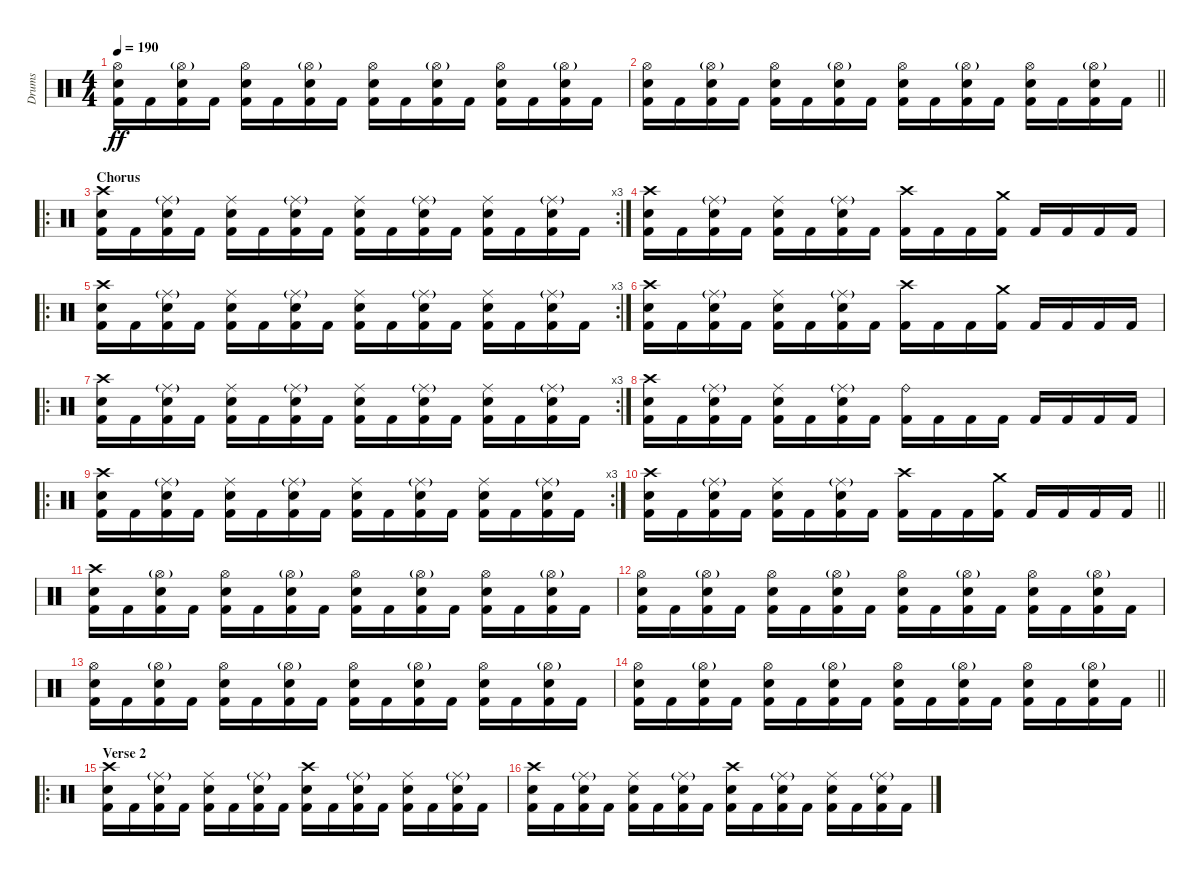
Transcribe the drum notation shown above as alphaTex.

\track ("Drums" "Drums") {instrument percussion}
\staff {score}
\articulation defaults
\ts (4 4)
\tempo 190
\clef neutral
\ks c
("Hi-Hat (open)" "Electric Snare (hit)" "Kick (hit) 2").16{dy ff} "Kick (hit) 2".16 ("Hi-Hat (open)"{g} "Electric Snare (hit)" "Kick (hit) 2").16 "Kick (hit) 2".16 ("Hi-Hat (open)" "Electric Snare (hit)" "Kick (hit) 2").16 "Kick (hit) 2".16 ("Hi-Hat (open)"{g} "Electric Snare (hit)" "Kick (hit) 2").16 "Kick (hit) 2".16 ("Hi-Hat (open)" "Electric Snare (hit)" "Kick (hit) 2").16 "Kick (hit) 2".16 ("Hi-Hat (open)"{g} "Electric Snare (hit)" "Kick (hit) 2").16 "Kick (hit) 2".16 ("Hi-Hat (open)" "Electric Snare (hit)" "Kick (hit) 2").16 "Kick (hit) 2".16 ("Hi-Hat (open)"{g} "Electric Snare (hit)" "Kick (hit) 2").16 "Kick (hit) 2".16 |
\barLineRight lightlight
("Hi-Hat (open)" "Electric Snare (hit)" "Kick (hit) 2").16 "Kick (hit) 2".16 ("Hi-Hat (open)"{g} "Electric Snare (hit)" "Kick (hit) 2").16 "Kick (hit) 2".16 ("Hi-Hat (open)" "Electric Snare (hit)" "Kick (hit) 2").16 "Kick (hit) 2".16 ("Hi-Hat (open)"{g} "Electric Snare (hit)" "Kick (hit) 2").16 "Kick (hit) 2".16 ("Hi-Hat (open)" "Electric Snare (hit)" "Kick (hit) 2").16 "Kick (hit) 2".16 ("Hi-Hat (open)"{g} "Electric Snare (hit)" "Kick (hit) 2").16 "Kick (hit) 2".16 ("Hi-Hat (open)" "Electric Snare (hit)" "Kick (hit) 2").16 "Kick (hit) 2".16 ("Hi-Hat (open)"{g} "Electric Snare (hit)" "Kick (hit) 2").16 "Kick (hit) 2".16 |
\ro
\rc 3
\section ("" "Chorus")
("Crash high (hit)" "Electric Snare (hit)" "Kick (hit) 2").16 "Kick (hit) 2".16 ("Ride (middle)"{g} "Electric Snare (hit)" "Kick (hit) 2").16 "Kick (hit) 2".16 ("Ride (middle)" "Electric Snare (hit)" "Kick (hit) 2").16 "Kick (hit) 2".16 ("Ride (middle)"{g} "Electric Snare (hit)" "Kick (hit) 2").16 "Kick (hit) 2".16 ("Ride (middle)" "Electric Snare (hit)" "Kick (hit) 2").16 "Kick (hit) 2".16 ("Ride (middle)"{g} "Electric Snare (hit)" "Kick (hit) 2").16 "Kick (hit) 2".16 ("Ride (middle)" "Electric Snare (hit)" "Kick (hit) 2").16 "Kick (hit) 2".16 ("Ride (middle)"{g} "Electric Snare (hit)" "Kick (hit) 2").16 "Kick (hit) 2".16 |
("Crash high (hit)" "Electric Snare (hit)" "Kick (hit) 2").16 "Kick (hit) 2".16 ("Ride (middle)"{g} "Electric Snare (hit)" "Kick (hit) 2").16 "Kick (hit) 2".16 ("Ride (middle)" "Electric Snare (hit)" "Kick (hit) 2").16 "Kick (hit) 2".16 ("Ride (middle)"{g} "Electric Snare (hit)" "Kick (hit) 2").16 "Kick (hit) 2".16 ("Crash high (hit)" "Kick (hit) 2").16 "Kick (hit) 2".16 "Kick (hit) 2".16 ("Crash medium (hit)" "Kick (hit) 2").16 "Kick (hit) 2".16 "Kick (hit) 2".16 "Kick (hit) 2".16 "Kick (hit) 2".16 |
\ro
\rc 3
("Crash high (hit)" "Electric Snare (hit)" "Kick (hit) 2").16 "Kick (hit) 2".16 ("Ride (middle)"{g} "Electric Snare (hit)" "Kick (hit) 2").16 "Kick (hit) 2".16 ("Ride (middle)" "Electric Snare (hit)" "Kick (hit) 2").16 "Kick (hit) 2".16 ("Ride (middle)"{g} "Electric Snare (hit)" "Kick (hit) 2").16 "Kick (hit) 2".16 ("Ride (middle)" "Electric Snare (hit)" "Kick (hit) 2").16 "Kick (hit) 2".16 ("Ride (middle)"{g} "Electric Snare (hit)" "Kick (hit) 2").16 "Kick (hit) 2".16 ("Ride (middle)" "Electric Snare (hit)" "Kick (hit) 2").16 "Kick (hit) 2".16 ("Ride (middle)"{g} "Electric Snare (hit)" "Kick (hit) 2").16 "Kick (hit) 2".16 |
("Crash high (hit)" "Electric Snare (hit)" "Kick (hit) 2").16 "Kick (hit) 2".16 ("Ride (middle)"{g} "Electric Snare (hit)" "Kick (hit) 2").16 "Kick (hit) 2".16 ("Ride (middle)" "Electric Snare (hit)" "Kick (hit) 2").16 "Kick (hit) 2".16 ("Ride (middle)"{g} "Electric Snare (hit)" "Kick (hit) 2").16 "Kick (hit) 2".16 ("Crash high (hit)" "Kick (hit) 2").16 "Kick (hit) 2".16 "Kick (hit) 2".16 ("Crash medium (hit)" "Kick (hit) 2").16 "Kick (hit) 2".16 "Kick (hit) 2".16 "Kick (hit) 2".16 "Kick (hit) 2".16 |
\ro
\rc 3
("Crash high (hit)" "Electric Snare (hit)" "Kick (hit) 2").16 "Kick (hit) 2".16 ("Ride (middle)"{g} "Electric Snare (hit)" "Kick (hit) 2").16 "Kick (hit) 2".16 ("Ride (middle)" "Electric Snare (hit)" "Kick (hit) 2").16 "Kick (hit) 2".16 ("Ride (middle)"{g} "Electric Snare (hit)" "Kick (hit) 2").16 "Kick (hit) 2".16 ("Ride (middle)" "Electric Snare (hit)" "Kick (hit) 2").16 "Kick (hit) 2".16 ("Ride (middle)"{g} "Electric Snare (hit)" "Kick (hit) 2").16 "Kick (hit) 2".16 ("Ride (middle)" "Electric Snare (hit)" "Kick (hit) 2").16 "Kick (hit) 2".16 ("Ride (middle)"{g} "Electric Snare (hit)" "Kick (hit) 2").16 "Kick (hit) 2".16 |
("Crash high (hit)" "Electric Snare (hit)" "Kick (hit) 2").16 "Kick (hit) 2".16 ("Ride (middle)"{g} "Electric Snare (hit)" "Kick (hit) 2").16 "Kick (hit) 2".16 ("Ride (middle)" "Electric Snare (hit)" "Kick (hit) 2").16 "Kick (hit) 2".16 ("Ride (middle)"{g} "Electric Snare (hit)" "Kick (hit) 2").16 "Kick (hit) 2".16 ("Ride (bell)" "Kick (hit) 2").16 "Kick (hit) 2".16 "Kick (hit) 2".16 "Kick (hit) 2".16 "Kick (hit) 2".16 "Kick (hit) 2".16 "Kick (hit) 2".16 "Kick (hit) 2".16 |
\ro
\rc 3
("Crash high (hit)" "Electric Snare (hit)" "Kick (hit) 2").16 "Kick (hit) 2".16 ("Ride (middle)"{g} "Electric Snare (hit)" "Kick (hit) 2").16 "Kick (hit) 2".16 ("Ride (middle)" "Electric Snare (hit)" "Kick (hit) 2").16 "Kick (hit) 2".16 ("Ride (middle)"{g} "Electric Snare (hit)" "Kick (hit) 2").16 "Kick (hit) 2".16 ("Ride (middle)" "Electric Snare (hit)" "Kick (hit) 2").16 "Kick (hit) 2".16 ("Ride (middle)"{g} "Electric Snare (hit)" "Kick (hit) 2").16 "Kick (hit) 2".16 ("Ride (middle)" "Electric Snare (hit)" "Kick (hit) 2").16 "Kick (hit) 2".16 ("Ride (middle)"{g} "Electric Snare (hit)" "Kick (hit) 2").16 "Kick (hit) 2".16 |
\barLineRight lightlight
("Crash high (hit)" "Electric Snare (hit)" "Kick (hit) 2").16 "Kick (hit) 2".16 ("Ride (middle)"{g} "Electric Snare (hit)" "Kick (hit) 2").16 "Kick (hit) 2".16 ("Ride (middle)" "Electric Snare (hit)" "Kick (hit) 2").16 "Kick (hit) 2".16 ("Ride (middle)"{g} "Electric Snare (hit)" "Kick (hit) 2").16 "Kick (hit) 2".16 ("Crash high (hit)" "Kick (hit) 2").16 "Kick (hit) 2".16 "Kick (hit) 2".16 ("Crash medium (hit)" "Kick (hit) 2").16 "Kick (hit) 2".16 "Kick (hit) 2".16 "Kick (hit) 2".16 "Kick (hit) 2".16 |
\section ("" "")
("Crash high (hit)" "Electric Snare (hit)" "Kick (hit) 2").16 "Kick (hit) 2".16 ("Hi-Hat (open)"{g} "Electric Snare (hit)" "Kick (hit) 2").16 "Kick (hit) 2".16 ("Hi-Hat (open)" "Electric Snare (hit)" "Kick (hit) 2").16 "Kick (hit) 2".16 ("Hi-Hat (open)"{g} "Electric Snare (hit)" "Kick (hit) 2").16 "Kick (hit) 2".16 ("Hi-Hat (open)" "Electric Snare (hit)" "Kick (hit) 2").16 "Kick (hit) 2".16 ("Hi-Hat (open)"{g} "Electric Snare (hit)" "Kick (hit) 2").16 "Kick (hit) 2".16 ("Hi-Hat (open)" "Electric Snare (hit)" "Kick (hit) 2").16 "Kick (hit) 2".16 ("Hi-Hat (open)"{g} "Electric Snare (hit)" "Kick (hit) 2").16 "Kick (hit) 2".16 |
("Hi-Hat (open)" "Electric Snare (hit)" "Kick (hit) 2").16 "Kick (hit) 2".16 ("Hi-Hat (open)"{g} "Electric Snare (hit)" "Kick (hit) 2").16 "Kick (hit) 2".16 ("Hi-Hat (open)" "Electric Snare (hit)" "Kick (hit) 2").16 "Kick (hit) 2".16 ("Hi-Hat (open)"{g} "Electric Snare (hit)" "Kick (hit) 2").16 "Kick (hit) 2".16 ("Hi-Hat (open)" "Electric Snare (hit)" "Kick (hit) 2").16 "Kick (hit) 2".16 ("Hi-Hat (open)"{g} "Electric Snare (hit)" "Kick (hit) 2").16 "Kick (hit) 2".16 ("Hi-Hat (open)" "Electric Snare (hit)" "Kick (hit) 2").16 "Kick (hit) 2".16 ("Hi-Hat (open)"{g} "Electric Snare (hit)" "Kick (hit) 2").16 "Kick (hit) 2".16 |
("Hi-Hat (open)" "Electric Snare (hit)" "Kick (hit) 2").16 "Kick (hit) 2".16 ("Hi-Hat (open)"{g} "Electric Snare (hit)" "Kick (hit) 2").16 "Kick (hit) 2".16 ("Hi-Hat (open)" "Electric Snare (hit)" "Kick (hit) 2").16 "Kick (hit) 2".16 ("Hi-Hat (open)"{g} "Electric Snare (hit)" "Kick (hit) 2").16 "Kick (hit) 2".16 ("Hi-Hat (open)" "Electric Snare (hit)" "Kick (hit) 2").16 "Kick (hit) 2".16 ("Hi-Hat (open)"{g} "Electric Snare (hit)" "Kick (hit) 2").16 "Kick (hit) 2".16 ("Hi-Hat (open)" "Electric Snare (hit)" "Kick (hit) 2").16 "Kick (hit) 2".16 ("Hi-Hat (open)"{g} "Electric Snare (hit)" "Kick (hit) 2").16 "Kick (hit) 2".16 |
\barLineRight lightlight
("Hi-Hat (open)" "Electric Snare (hit)" "Kick (hit) 2").16 "Kick (hit) 2".16 ("Hi-Hat (open)"{g} "Electric Snare (hit)" "Kick (hit) 2").16 "Kick (hit) 2".16 ("Hi-Hat (open)" "Electric Snare (hit)" "Kick (hit) 2").16 "Kick (hit) 2".16 ("Hi-Hat (open)"{g} "Electric Snare (hit)" "Kick (hit) 2").16 "Kick (hit) 2".16 ("Hi-Hat (open)" "Electric Snare (hit)" "Kick (hit) 2").16 "Kick (hit) 2".16 ("Hi-Hat (open)"{g} "Electric Snare (hit)" "Kick (hit) 2").16 "Kick (hit) 2".16 ("Hi-Hat (open)" "Electric Snare (hit)" "Kick (hit) 2").16 "Kick (hit) 2".16 ("Hi-Hat (open)"{g} "Electric Snare (hit)" "Kick (hit) 2").16 "Kick (hit) 2".16 |
\ro
\section ("" "Verse 2")
("Crash high (hit)" "Electric Snare (hit)" "Kick (hit) 2").16 "Kick (hit) 2".16 ("Ride (middle)"{g} "Electric Snare (hit)" "Kick (hit) 2").16 "Kick (hit) 2".16 ("Ride (middle)" "Electric Snare (hit)" "Kick (hit) 2").16 "Kick (hit) 2".16 ("Ride (middle)"{g} "Electric Snare (hit)" "Kick (hit) 2").16 "Kick (hit) 2".16 ("Crash high (hit)" "Electric Snare (hit)" "Kick (hit) 2").16 "Kick (hit) 2".16 ("Ride (middle)"{g} "Electric Snare (hit)" "Kick (hit) 2").16 "Kick (hit) 2".16 ("Ride (middle)" "Electric Snare (hit)" "Kick (hit) 2").16 "Kick (hit) 2".16 ("Ride (middle)"{g} "Electric Snare (hit)" "Kick (hit) 2").16 "Kick (hit) 2".16 |
("Crash high (hit)" "Electric Snare (hit)" "Kick (hit) 2").16 "Kick (hit) 2".16 ("Ride (middle)"{g} "Electric Snare (hit)" "Kick (hit) 2").16 "Kick (hit) 2".16 ("Ride (middle)" "Electric Snare (hit)" "Kick (hit) 2").16 "Kick (hit) 2".16 ("Ride (middle)"{g} "Electric Snare (hit)" "Kick (hit) 2").16 "Kick (hit) 2".16 ("Crash high (hit)" "Electric Snare (hit)" "Kick (hit) 2").16 "Kick (hit) 2".16 ("Ride (middle)"{g} "Electric Snare (hit)" "Kick (hit) 2").16 "Kick (hit) 2".16 ("Ride (middle)" "Electric Snare (hit)" "Kick (hit) 2").16 "Kick (hit) 2".16 ("Ride (middle)"{g} "Electric Snare (hit)" "Kick (hit) 2").16 "Kick (hit) 2".16
